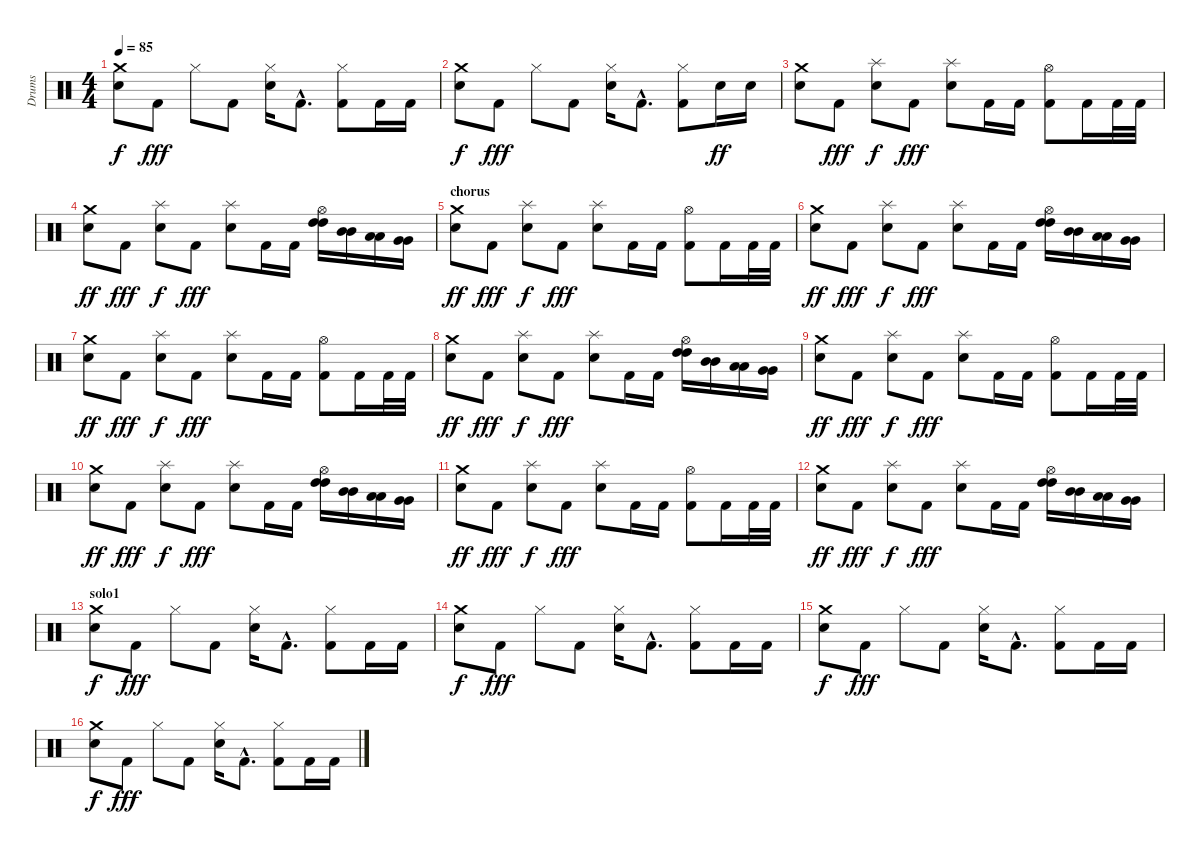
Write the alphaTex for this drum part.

\track ("Drums" "Drums") {instrument percussion}
\staff {score}
\articulation defaults
\ts (4 4)
\tempo 85
\clef neutral
\ks c
("Crash medium (hit)" "Electric Snare (hit)").8{dy f} "Kick (hit) 2".8{dy fff} "Hi-Hat (closed)".8 "Kick (hit) 2".8 ("Hi-Hat (closed)" "Electric Snare (hit)").16 "Kick (hit) 2"{hac}.8{d} ("Hi-Hat (closed)" "Kick (hit) 2").8 "Kick (hit) 2".16 "Kick (hit) 2".16 |
("Crash medium (hit)" "Electric Snare (hit)").8{dy f} "Kick (hit) 2".8{dy fff} "Hi-Hat (closed)".8 "Kick (hit) 2".8 ("Hi-Hat (closed)" "Electric Snare (hit)").16 "Kick (hit) 2"{hac}.8{d} ("Hi-Hat (closed)" "Kick (hit) 2").8 "Electric Snare (hit)".16{dy ff} "Electric Snare (hit)".16 |
("Electric Snare (hit)" "Crash medium (hit)").8 "Kick (hit) 2".8{dy fff} ("Splash (hit)" "Snare (hit) 2").8{dy f} "Kick (hit) 2".8{dy fff} ("Splash (hit)" "Electric Snare (hit)").8 "Kick (hit) 2".16 "Kick (hit) 2".16 ("Hi-Hat (open)" "Kick (hit) 2").8 "Kick (hit) 2".16 "Kick (hit) 2".32 "Kick (hit) 2".32 |
("Electric Snare (hit)" "Crash medium (hit)").8{dy ff} "Kick (hit) 2".8{dy fff} ("Splash (hit)" "Snare (hit) 2").8{dy f} "Kick (hit) 2".8{dy fff} ("Splash (hit)" "Electric Snare (hit)").8 "Kick (hit) 2".16 "Kick (hit) 2".16 ("Hi-Hat (open)" "High Tom (hit)" "High Tom (hit)").16 ("Mid Tom (hit)" "Mid Tom (hit)").16 ("Low Tom (hit)" "Low Tom (hit)").16 ("Very Low Tom (hit)" "Very Low Tom (hit)").16 |
\section ("" "chorus")
("Electric Snare (hit)" "Crash medium (hit)").8{dy ff} "Kick (hit) 2".8{dy fff} ("Splash (hit)" "Snare (hit) 2").8{dy f} "Kick (hit) 2".8{dy fff} ("Splash (hit)" "Electric Snare (hit)").8 "Kick (hit) 2".16 "Kick (hit) 2".16 ("Hi-Hat (open)" "Kick (hit) 2").8 "Kick (hit) 2".16 "Kick (hit) 2".32 "Kick (hit) 2".32 |
("Electric Snare (hit)" "Crash medium (hit)").8{dy ff} "Kick (hit) 2".8{dy fff} ("Splash (hit)" "Snare (hit) 2").8{dy f} "Kick (hit) 2".8{dy fff} ("Splash (hit)" "Electric Snare (hit)").8 "Kick (hit) 2".16 "Kick (hit) 2".16 ("Hi-Hat (open)" "High Tom (hit)" "High Tom (hit)").16 ("Mid Tom (hit)" "Mid Tom (hit)").16 ("Low Tom (hit)" "Low Tom (hit)").16 ("Very Low Tom (hit)" "Very Low Tom (hit)").16 |
("Electric Snare (hit)" "Crash medium (hit)").8{dy ff} "Kick (hit) 2".8{dy fff} ("Splash (hit)" "Snare (hit) 2").8{dy f} "Kick (hit) 2".8{dy fff} ("Splash (hit)" "Electric Snare (hit)").8 "Kick (hit) 2".16 "Kick (hit) 2".16 ("Hi-Hat (open)" "Kick (hit) 2").8 "Kick (hit) 2".16 "Kick (hit) 2".32 "Kick (hit) 2".32 |
("Electric Snare (hit)" "Crash medium (hit)").8{dy ff} "Kick (hit) 2".8{dy fff} ("Splash (hit)" "Snare (hit) 2").8{dy f} "Kick (hit) 2".8{dy fff} ("Splash (hit)" "Electric Snare (hit)").8 "Kick (hit) 2".16 "Kick (hit) 2".16 ("Hi-Hat (open)" "High Tom (hit)" "High Tom (hit)").16 ("Mid Tom (hit)" "Mid Tom (hit)").16 ("Low Tom (hit)" "Low Tom (hit)").16 ("Very Low Tom (hit)" "Very Low Tom (hit)").16 |
("Electric Snare (hit)" "Crash medium (hit)").8{dy ff} "Kick (hit) 2".8{dy fff} ("Splash (hit)" "Snare (hit) 2").8{dy f} "Kick (hit) 2".8{dy fff} ("Splash (hit)" "Electric Snare (hit)").8 "Kick (hit) 2".16 "Kick (hit) 2".16 ("Hi-Hat (open)" "Kick (hit) 2").8 "Kick (hit) 2".16 "Kick (hit) 2".32 "Kick (hit) 2".32 |
("Electric Snare (hit)" "Crash medium (hit)").8{dy ff} "Kick (hit) 2".8{dy fff} ("Splash (hit)" "Snare (hit) 2").8{dy f} "Kick (hit) 2".8{dy fff} ("Splash (hit)" "Electric Snare (hit)").8 "Kick (hit) 2".16 "Kick (hit) 2".16 ("Hi-Hat (open)" "High Tom (hit)" "High Tom (hit)").16 ("Mid Tom (hit)" "Mid Tom (hit)").16 ("Low Tom (hit)" "Low Tom (hit)").16 ("Very Low Tom (hit)" "Very Low Tom (hit)").16 |
("Electric Snare (hit)" "Crash medium (hit)").8{dy ff} "Kick (hit) 2".8{dy fff} ("Splash (hit)" "Snare (hit) 2").8{dy f} "Kick (hit) 2".8{dy fff} ("Splash (hit)" "Electric Snare (hit)").8 "Kick (hit) 2".16 "Kick (hit) 2".16 ("Hi-Hat (open)" "Kick (hit) 2").8 "Kick (hit) 2".16 "Kick (hit) 2".32 "Kick (hit) 2".32 |
("Electric Snare (hit)" "Crash medium (hit)").8{dy ff} "Kick (hit) 2".8{dy fff} ("Splash (hit)" "Snare (hit) 2").8{dy f} "Kick (hit) 2".8{dy fff} ("Splash (hit)" "Electric Snare (hit)").8 "Kick (hit) 2".16 "Kick (hit) 2".16 ("Hi-Hat (open)" "High Tom (hit)" "High Tom (hit)").16 ("Mid Tom (hit)" "Mid Tom (hit)").16 ("Low Tom (hit)" "Low Tom (hit)").16 ("Very Low Tom (hit)" "Very Low Tom (hit)").16 |
\section ("" "solo1")
("Crash medium (hit)" "Electric Snare (hit)").8{dy f} "Kick (hit) 2".8{dy fff} "Hi-Hat (closed)".8 "Kick (hit) 2".8 ("Hi-Hat (closed)" "Electric Snare (hit)").16 "Kick (hit) 2"{hac}.8{d} ("Hi-Hat (closed)" "Kick (hit) 2").8 "Kick (hit) 2".16 "Kick (hit) 2".16 |
("Crash medium (hit)" "Electric Snare (hit)").8{dy f} "Kick (hit) 2".8{dy fff} "Hi-Hat (closed)".8 "Kick (hit) 2".8 ("Hi-Hat (closed)" "Electric Snare (hit)").16 "Kick (hit) 2"{hac}.8{d} ("Hi-Hat (closed)" "Kick (hit) 2").8 "Kick (hit) 2".16 "Kick (hit) 2".16 |
("Crash medium (hit)" "Electric Snare (hit)").8{dy f} "Kick (hit) 2".8{dy fff} "Hi-Hat (closed)".8 "Kick (hit) 2".8 ("Hi-Hat (closed)" "Electric Snare (hit)").16 "Kick (hit) 2"{hac}.8{d} ("Hi-Hat (closed)" "Kick (hit) 2").8 "Kick (hit) 2".16 "Kick (hit) 2".16 |
("Crash medium (hit)" "Electric Snare (hit)").8{dy f} "Kick (hit) 2".8{dy fff} "Hi-Hat (closed)".8 "Kick (hit) 2".8 ("Hi-Hat (closed)" "Electric Snare (hit)").16 "Kick (hit) 2"{hac}.8{d} ("Hi-Hat (closed)" "Kick (hit) 2").8 "Kick (hit) 2".16 "Kick (hit) 2".16
